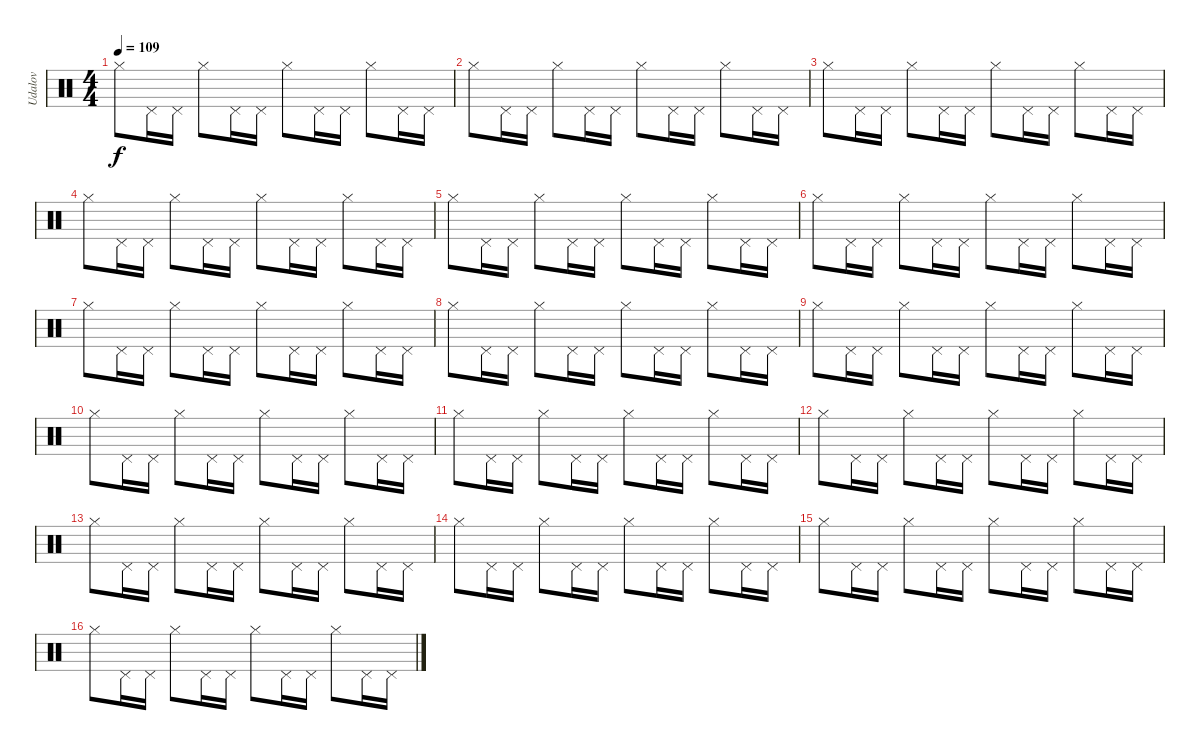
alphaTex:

\track ("Udalov" "Udalov") {instrument percussion}
\staff {score}
\articulation defaults
\ts (4 4)
\tempo 109
\clef neutral
\ks c "Hi-Hat (closed)".8{dy f} "Pedal Hi-Hat (hit)".16 "Pedal Hi-Hat (hit)".16 "Hi-Hat (closed)".8 "Pedal Hi-Hat (hit)".16 "Pedal Hi-Hat (hit)".16 "Hi-Hat (closed)".8 "Pedal Hi-Hat (hit)".16 "Pedal Hi-Hat (hit)".16 "Hi-Hat (closed)".8 "Pedal Hi-Hat (hit)".16 "Pedal Hi-Hat (hit)".16
|
"Hi-Hat (closed)".8 "Pedal Hi-Hat (hit)".16 "Pedal Hi-Hat (hit)".16 "Hi-Hat (closed)".8 "Pedal Hi-Hat (hit)".16 "Pedal Hi-Hat (hit)".16 "Hi-Hat (closed)".8 "Pedal Hi-Hat (hit)".16 "Pedal Hi-Hat (hit)".16 "Hi-Hat (closed)".8 "Pedal Hi-Hat (hit)".16 "Pedal Hi-Hat (hit)".16 |
"Hi-Hat (closed)".8 "Pedal Hi-Hat (hit)".16 "Pedal Hi-Hat (hit)".16 "Hi-Hat (closed)".8 "Pedal Hi-Hat (hit)".16 "Pedal Hi-Hat (hit)".16 "Hi-Hat (closed)".8 "Pedal Hi-Hat (hit)".16 "Pedal Hi-Hat (hit)".16 "Hi-Hat (closed)".8 "Pedal Hi-Hat (hit)".16 "Pedal Hi-Hat (hit)".16 |
"Hi-Hat (closed)".8 "Pedal Hi-Hat (hit)".16 "Pedal Hi-Hat (hit)".16 "Hi-Hat (closed)".8 "Pedal Hi-Hat (hit)".16 "Pedal Hi-Hat (hit)".16 "Hi-Hat (closed)".8 "Pedal Hi-Hat (hit)".16 "Pedal Hi-Hat (hit)".16 "Hi-Hat (closed)".8 "Pedal Hi-Hat (hit)".16 "Pedal Hi-Hat (hit)".16 |
"Hi-Hat (closed)".8 "Pedal Hi-Hat (hit)".16 "Pedal Hi-Hat (hit)".16 "Hi-Hat (closed)".8 "Pedal Hi-Hat (hit)".16 "Pedal Hi-Hat (hit)".16 "Hi-Hat (closed)".8 "Pedal Hi-Hat (hit)".16 "Pedal Hi-Hat (hit)".16 "Hi-Hat (closed)".8 "Pedal Hi-Hat (hit)".16 "Pedal Hi-Hat (hit)".16 |
"Hi-Hat (closed)".8 "Pedal Hi-Hat (hit)".16 "Pedal Hi-Hat (hit)".16 "Hi-Hat (closed)".8 "Pedal Hi-Hat (hit)".16 "Pedal Hi-Hat (hit)".16 "Hi-Hat (closed)".8 "Pedal Hi-Hat (hit)".16 "Pedal Hi-Hat (hit)".16 "Hi-Hat (closed)".8 "Pedal Hi-Hat (hit)".16 "Pedal Hi-Hat (hit)".16 |
"Hi-Hat (closed)".8 "Pedal Hi-Hat (hit)".16 "Pedal Hi-Hat (hit)".16 "Hi-Hat (closed)".8 "Pedal Hi-Hat (hit)".16 "Pedal Hi-Hat (hit)".16 "Hi-Hat (closed)".8 "Pedal Hi-Hat (hit)".16 "Pedal Hi-Hat (hit)".16 "Hi-Hat (closed)".8 "Pedal Hi-Hat (hit)".16 "Pedal Hi-Hat (hit)".16 |
"Hi-Hat (closed)".8 "Pedal Hi-Hat (hit)".16 "Pedal Hi-Hat (hit)".16 "Hi-Hat (closed)".8 "Pedal Hi-Hat (hit)".16 "Pedal Hi-Hat (hit)".16 "Hi-Hat (closed)".8 "Pedal Hi-Hat (hit)".16 "Pedal Hi-Hat (hit)".16 "Hi-Hat (closed)".8 "Pedal Hi-Hat (hit)".16 "Pedal Hi-Hat (hit)".16 |
"Hi-Hat (closed)".8 "Pedal Hi-Hat (hit)".16 "Pedal Hi-Hat (hit)".16 "Hi-Hat (closed)".8 "Pedal Hi-Hat (hit)".16 "Pedal Hi-Hat (hit)".16 "Hi-Hat (closed)".8 "Pedal Hi-Hat (hit)".16 "Pedal Hi-Hat (hit)".16 "Hi-Hat (closed)".8 "Pedal Hi-Hat (hit)".16 "Pedal Hi-Hat (hit)".16 |
"Hi-Hat (closed)".8 "Pedal Hi-Hat (hit)".16 "Pedal Hi-Hat (hit)".16 "Hi-Hat (closed)".8 "Pedal Hi-Hat (hit)".16 "Pedal Hi-Hat (hit)".16 "Hi-Hat (closed)".8 "Pedal Hi-Hat (hit)".16 "Pedal Hi-Hat (hit)".16 "Hi-Hat (closed)".8 "Pedal Hi-Hat (hit)".16 "Pedal Hi-Hat (hit)".16 |
"Hi-Hat (closed)".8 "Pedal Hi-Hat (hit)".16 "Pedal Hi-Hat (hit)".16 "Hi-Hat (closed)".8 "Pedal Hi-Hat (hit)".16 "Pedal Hi-Hat (hit)".16 "Hi-Hat (closed)".8 "Pedal Hi-Hat (hit)".16 "Pedal Hi-Hat (hit)".16 "Hi-Hat (closed)".8 "Pedal Hi-Hat (hit)".16 "Pedal Hi-Hat (hit)".16 |
"Hi-Hat (closed)".8 "Pedal Hi-Hat (hit)".16 "Pedal Hi-Hat (hit)".16 "Hi-Hat (closed)".8 "Pedal Hi-Hat (hit)".16 "Pedal Hi-Hat (hit)".16 "Hi-Hat (closed)".8 "Pedal Hi-Hat (hit)".16 "Pedal Hi-Hat (hit)".16 "Hi-Hat (closed)".8 "Pedal Hi-Hat (hit)".16 "Pedal Hi-Hat (hit)".16 |
"Hi-Hat (closed)".8 "Pedal Hi-Hat (hit)".16 "Pedal Hi-Hat (hit)".16 "Hi-Hat (closed)".8 "Pedal Hi-Hat (hit)".16 "Pedal Hi-Hat (hit)".16 "Hi-Hat (closed)".8 "Pedal Hi-Hat (hit)".16 "Pedal Hi-Hat (hit)".16 "Hi-Hat (closed)".8 "Pedal Hi-Hat (hit)".16 "Pedal Hi-Hat (hit)".16 |
"Hi-Hat (closed)".8 "Pedal Hi-Hat (hit)".16 "Pedal Hi-Hat (hit)".16 "Hi-Hat (closed)".8 "Pedal Hi-Hat (hit)".16 "Pedal Hi-Hat (hit)".16 "Hi-Hat (closed)".8 "Pedal Hi-Hat (hit)".16 "Pedal Hi-Hat (hit)".16 "Hi-Hat (closed)".8 "Pedal Hi-Hat (hit)".16 "Pedal Hi-Hat (hit)".16 |
"Hi-Hat (closed)".8 "Pedal Hi-Hat (hit)".16 "Pedal Hi-Hat (hit)".16 "Hi-Hat (closed)".8 "Pedal Hi-Hat (hit)".16 "Pedal Hi-Hat (hit)".16 "Hi-Hat (closed)".8 "Pedal Hi-Hat (hit)".16 "Pedal Hi-Hat (hit)".16 "Hi-Hat (closed)".8 "Pedal Hi-Hat (hit)".16 "Pedal Hi-Hat (hit)".16 |
"Hi-Hat (closed)".8 "Pedal Hi-Hat (hit)".16 "Pedal Hi-Hat (hit)".16 "Hi-Hat (closed)".8 "Pedal Hi-Hat (hit)".16 "Pedal Hi-Hat (hit)".16 "Hi-Hat (closed)".8 "Pedal Hi-Hat (hit)".16 "Pedal Hi-Hat (hit)".16 "Hi-Hat (closed)".8 "Pedal Hi-Hat (hit)".16 "Pedal Hi-Hat (hit)".16
